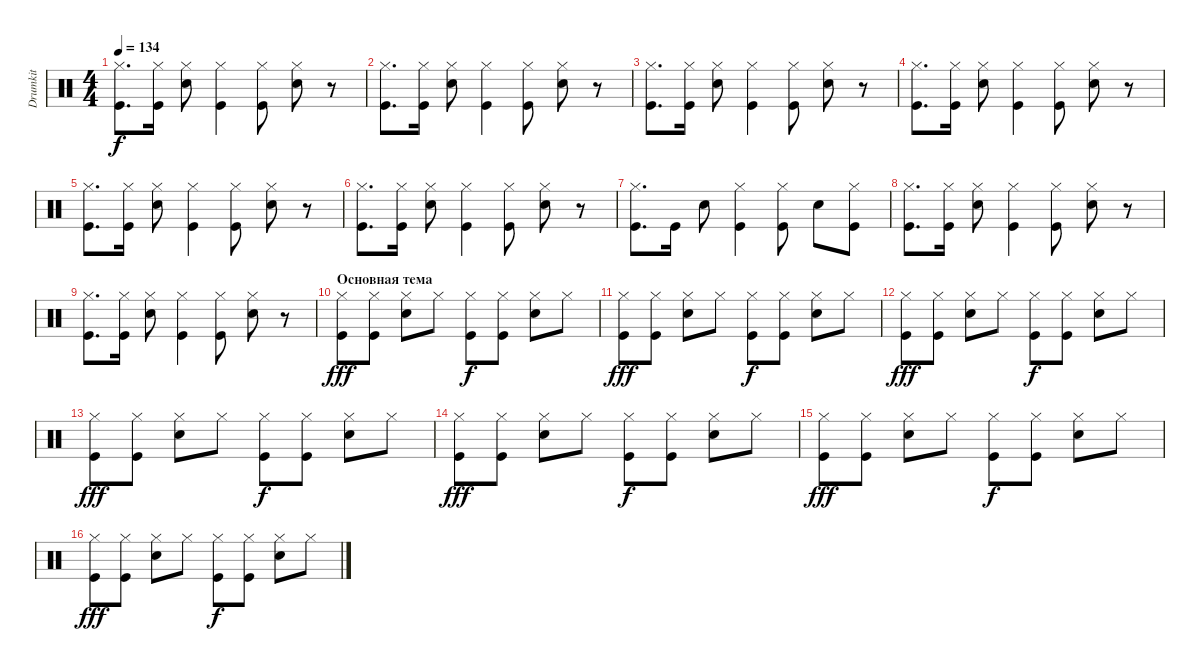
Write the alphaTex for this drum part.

\track ("Drumkit" "Drumkit") {instrument percussion}
\staff {score}
\articulation defaults
\ts (4 4)
\tempo 134
\clef neutral
\ks c
("Kick (hit)" "Hi-Hat (closed)").8{d dy f} ("Kick (hit)" "Hi-Hat (closed)").16 ("Snare (hit) 2" "Hi-Hat (closed)").8 ("Kick (hit)" "Hi-Hat (closed)").4 ("Kick (hit)" "Hi-Hat (closed)").8 ("Snare (hit) 2" "Hi-Hat (closed)").8 r.8 |
("Kick (hit)" "Hi-Hat (closed)").8{d} ("Kick (hit)" "Hi-Hat (closed)").16 ("Snare (hit) 2" "Hi-Hat (closed)").8 ("Kick (hit)" "Hi-Hat (closed)").4 ("Kick (hit)" "Hi-Hat (closed)").8 ("Snare (hit) 2" "Hi-Hat (closed)").8 r.8 |
("Kick (hit)" "Hi-Hat (closed)").8{d} ("Kick (hit)" "Hi-Hat (closed)").16 ("Snare (hit) 2" "Hi-Hat (closed)").8 ("Kick (hit)" "Hi-Hat (closed)").4 ("Kick (hit)" "Hi-Hat (closed)").8 ("Snare (hit) 2" "Hi-Hat (closed)").8 r.8 |
("Kick (hit)" "Hi-Hat (closed)").8{d} ("Kick (hit)" "Hi-Hat (closed)").16 ("Snare (hit) 2" "Hi-Hat (closed)").8 ("Kick (hit)" "Hi-Hat (closed)").4 ("Kick (hit)" "Hi-Hat (closed)").8 ("Snare (hit) 2" "Hi-Hat (closed)").8 r.8 |
("Kick (hit)" "Hi-Hat (closed)").8{d} ("Kick (hit)" "Hi-Hat (closed)").16 ("Snare (hit) 2" "Hi-Hat (closed)").8 ("Kick (hit)" "Hi-Hat (closed)").4 ("Kick (hit)" "Hi-Hat (closed)").8 ("Snare (hit) 2" "Hi-Hat (closed)").8 r.8 |
("Kick (hit)" "Hi-Hat (closed)").8{d} ("Kick (hit)" "Hi-Hat (closed)").16 ("Snare (hit) 2" "Hi-Hat (closed)").8 ("Kick (hit)" "Hi-Hat (closed)").4 ("Kick (hit)" "Hi-Hat (closed)").8 ("Snare (hit) 2" "Hi-Hat (closed)").8 r.8 |
("Kick (hit)" "Hi-Hat (closed)").8{d} "Kick (hit)".16 "Snare (hit) 2".8 ("Kick (hit)" "Hi-Hat (closed)").4 ("Kick (hit)" "Hi-Hat (closed)").8 "Snare (hit) 2".8 ("Kick (hit)" "Hi-Hat (closed)").8 |
("Kick (hit)" "Hi-Hat (closed)").8{d} ("Kick (hit)" "Hi-Hat (closed)").16 ("Snare (hit) 2" "Hi-Hat (closed)").8 ("Kick (hit)" "Hi-Hat (closed)").4 ("Kick (hit)" "Hi-Hat (closed)").8 ("Snare (hit) 2" "Hi-Hat (closed)").8 r.8 |
("Kick (hit)" "Hi-Hat (closed)").8{d} ("Kick (hit)" "Hi-Hat (closed)").16 ("Snare (hit) 2" "Hi-Hat (closed)").8 ("Kick (hit)" "Hi-Hat (closed)").4 ("Kick (hit)" "Hi-Hat (closed)").8 ("Snare (hit) 2" "Hi-Hat (closed)").8 r.8 |
\section ("" "Основная тема")
("Hi-Hat (closed)" "Kick (hit)").8{dy fff} ("Hi-Hat (closed)" "Kick (hit)").8 ("Hi-Hat (closed)" "Snare (hit) 2").8 "Hi-Hat (closed)".8 ("Hi-Hat (closed)" "Kick (hit)").8{dy f} ("Hi-Hat (closed)" "Kick (hit)").8 ("Hi-Hat (closed)" "Snare (hit) 2").8 "Hi-Hat (closed)".8 |
("Hi-Hat (closed)" "Kick (hit)").8{dy fff} ("Hi-Hat (closed)" "Kick (hit)").8 ("Hi-Hat (closed)" "Snare (hit) 2").8 "Hi-Hat (closed)".8 ("Hi-Hat (closed)" "Kick (hit)").8{dy f} ("Hi-Hat (closed)" "Kick (hit)").8 ("Hi-Hat (closed)" "Snare (hit) 2").8 "Hi-Hat (closed)".8 |
("Hi-Hat (closed)" "Kick (hit)").8{dy fff} ("Hi-Hat (closed)" "Kick (hit)").8 ("Hi-Hat (closed)" "Snare (hit) 2").8 "Hi-Hat (closed)".8 ("Hi-Hat (closed)" "Kick (hit)").8{dy f} ("Hi-Hat (closed)" "Kick (hit)").8 ("Hi-Hat (closed)" "Snare (hit) 2").8 "Hi-Hat (closed)".8 |
("Hi-Hat (closed)" "Kick (hit)").8{dy fff} ("Hi-Hat (closed)" "Kick (hit)").8 ("Hi-Hat (closed)" "Snare (hit) 2").8 "Hi-Hat (closed)".8 ("Hi-Hat (closed)" "Kick (hit)").8{dy f} ("Hi-Hat (closed)" "Kick (hit)").8 ("Hi-Hat (closed)" "Snare (hit) 2").8 "Hi-Hat (closed)".8 |
("Hi-Hat (closed)" "Kick (hit)").8{dy fff} ("Hi-Hat (closed)" "Kick (hit)").8 ("Hi-Hat (closed)" "Snare (hit) 2").8 "Hi-Hat (closed)".8 ("Hi-Hat (closed)" "Kick (hit)").8{dy f} ("Hi-Hat (closed)" "Kick (hit)").8 ("Hi-Hat (closed)" "Snare (hit) 2").8 "Hi-Hat (closed)".8 |
("Hi-Hat (closed)" "Kick (hit)").8{dy fff} ("Hi-Hat (closed)" "Kick (hit)").8 ("Hi-Hat (closed)" "Snare (hit) 2").8 "Hi-Hat (closed)".8 ("Hi-Hat (closed)" "Kick (hit)").8{dy f} ("Hi-Hat (closed)" "Kick (hit)").8 ("Hi-Hat (closed)" "Snare (hit) 2").8 "Hi-Hat (closed)".8 |
("Hi-Hat (closed)" "Kick (hit)").8{dy fff} ("Hi-Hat (closed)" "Kick (hit)").8 ("Hi-Hat (closed)" "Snare (hit) 2").8 "Hi-Hat (closed)".8 ("Hi-Hat (closed)" "Kick (hit)").8{dy f} ("Hi-Hat (closed)" "Kick (hit)").8 ("Hi-Hat (closed)" "Snare (hit) 2").8 "Hi-Hat (closed)".8
